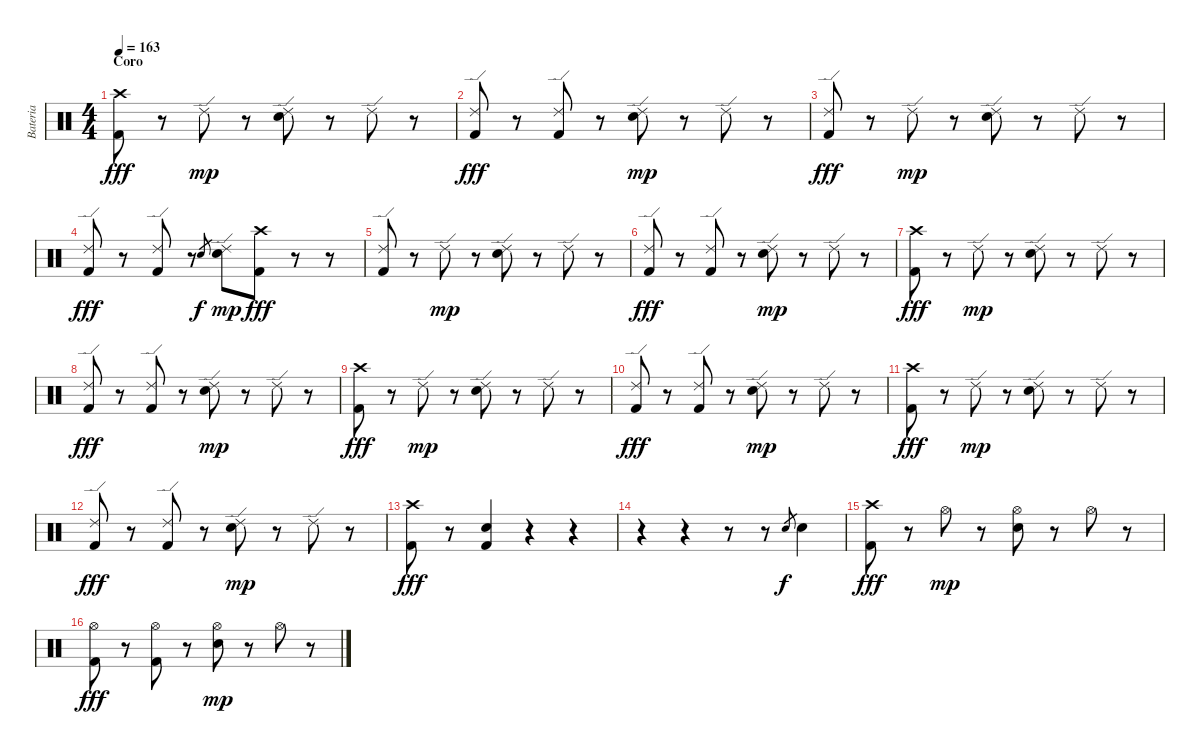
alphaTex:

\track ("Bateria" "Bateria") {instrument percussion}
\staff {score}
\articulation defaults
\ts (4 4)
\section ("" "Coro")
\tempo 163
\clef neutral
\ks c
("Crash high (hit)" "Kick (hit) 2").8{dy fff} r.8 "Ride (edge) 2".8{dy mp} r.8 ("Ride (edge) 2" "Electric Snare (hit)").8 r.8 "Ride (edge) 2".8 r.8 |
("Ride (edge) 2" "Kick (hit) 2").8{dy fff} r.8 ("Ride (edge) 2" "Kick (hit) 2").8 r.8 ("Ride (edge) 2" "Electric Snare (hit)").8{dy mp} r.8 "Ride (edge) 2".8 r.8 |
("Ride (edge) 2" "Kick (hit) 2").8{dy fff} r.8 "Ride (edge) 2".8{dy mp} r.8 ("Ride (edge) 2" "Electric Snare (hit)").8 r.8 "Ride (edge) 2".8 r.8 |
("Ride (edge) 2" "Kick (hit) 2").8{dy fff} r.8 ("Ride (edge) 2" "Kick (hit) 2").8 r.8 "Electric Snare (hit)".8{gr dy f} ("Ride (edge) 2" "Electric Snare (hit)").8{dy mp} ("Crash high (hit)" "Kick (hit) 2").8{dy fff} r.8 r.8 |
("Ride (edge) 2" "Kick (hit) 2").8 r.8 "Ride (edge) 2".8{dy mp} r.8 ("Ride (edge) 2" "Electric Snare (hit)").8 r.8 "Ride (edge) 2".8 r.8 |
("Ride (edge) 2" "Kick (hit) 2").8{dy fff} r.8 ("Ride (edge) 2" "Kick (hit) 2").8 r.8 ("Ride (edge) 2" "Electric Snare (hit)").8{dy mp} r.8 "Ride (edge) 2".8 r.8 |
("Crash high (hit)" "Kick (hit) 2").8{dy fff} r.8 "Ride (edge) 2".8{dy mp} r.8 ("Ride (edge) 2" "Electric Snare (hit)").8 r.8 "Ride (edge) 2".8 r.8 |
("Ride (edge) 2" "Kick (hit) 2").8{dy fff} r.8 ("Ride (edge) 2" "Kick (hit) 2").8 r.8 ("Ride (edge) 2" "Electric Snare (hit)").8{dy mp} r.8 "Ride (edge) 2".8 r.8 |
("Crash high (hit)" "Kick (hit) 2").8{dy fff} r.8 "Ride (edge) 2".8{dy mp} r.8 ("Ride (edge) 2" "Electric Snare (hit)").8 r.8 "Ride (edge) 2".8 r.8 |
("Ride (edge) 2" "Kick (hit) 2").8{dy fff} r.8 ("Ride (edge) 2" "Kick (hit) 2").8 r.8 ("Ride (edge) 2" "Electric Snare (hit)").8{dy mp} r.8 "Ride (edge) 2".8 r.8 |
("Crash high (hit)" "Kick (hit) 2").8{dy fff} r.8 "Ride (edge) 2".8{dy mp} r.8 ("Ride (edge) 2" "Electric Snare (hit)").8 r.8 "Ride (edge) 2".8 r.8 |
("Ride (edge) 2" "Kick (hit) 2").8{dy fff} r.8 ("Ride (edge) 2" "Kick (hit) 2").8 r.8 ("Ride (edge) 2" "Electric Snare (hit)").8{dy mp} r.8 "Ride (edge) 2".8 r.8 |
("Crash high (hit)" "Kick (hit) 2").8{dy fff} r.8 ("Electric Snare (hit)" "Kick (hit) 2").4 r.4 r.4 |
r.4 r.4 r.8 r.8 "Electric Snare (hit)".8{gr dy f} "Electric Snare (hit)".4 |
("Crash high (hit)" "Kick (hit) 2").8{dy fff} r.8 "Hi-Hat (open)".8{dy mp} r.8 ("Hi-Hat (open)" "Electric Snare (hit)").8 r.8 "Hi-Hat (open)".8 r.8 |
("Hi-Hat (open)" "Kick (hit) 2").8{dy fff} r.8 ("Hi-Hat (open)" "Kick (hit) 2").8 r.8 ("Hi-Hat (open)" "Electric Snare (hit)").8{dy mp} r.8 "Hi-Hat (open)".8 r.8
